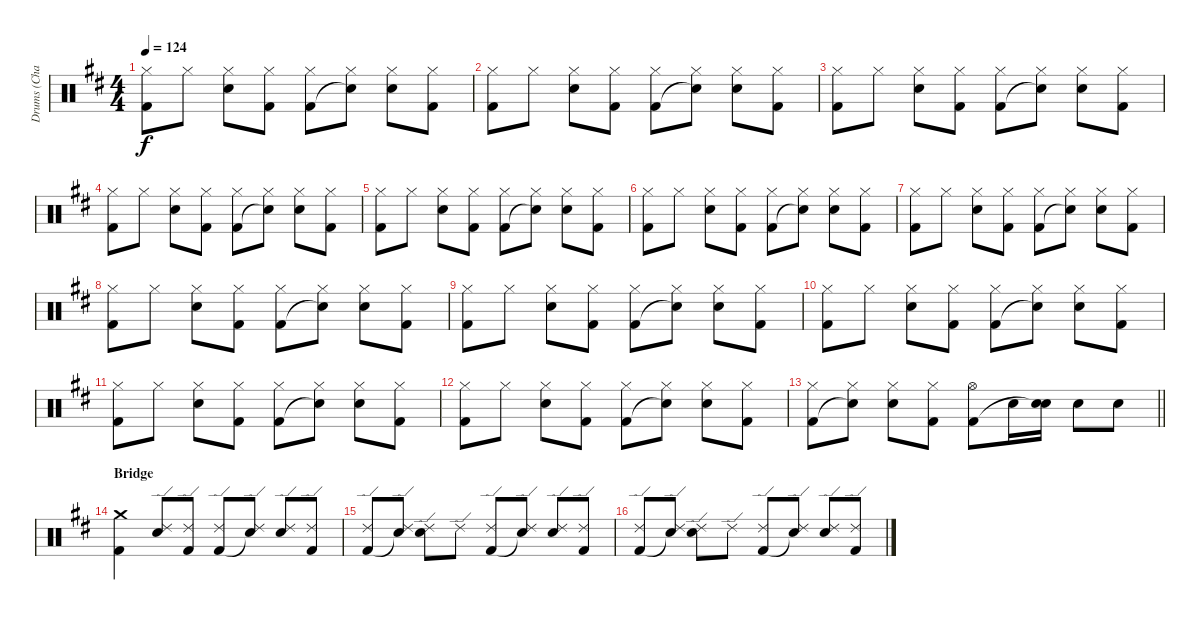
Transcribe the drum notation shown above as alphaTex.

\track ("Drums (Charlie)" "Drums (Cha") {instrument percussion}
\staff {score}
\articulation defaults
\ts (4 4)
\tempo 124
\clef neutral
\ks d
("Hi-Hat (closed)" "Kick (hit) 2").8{dy f} "Hi-Hat (closed)".8 ("Hi-Hat (closed)" "Snare (hit) 2").8 ("Hi-Hat (closed)" "Kick (hit) 2").8 ("Hi-Hat (closed)" "Kick (hit) 2").8 ("Hi-Hat (closed)" "Snare (hit)"{t}).8 ("Hi-Hat (closed)" "Snare (hit) 2").8 ("Hi-Hat (closed)" "Kick (hit) 2").8 |
("Hi-Hat (closed)" "Kick (hit) 2").8 "Hi-Hat (closed)".8 ("Hi-Hat (closed)" "Snare (hit) 2").8 ("Hi-Hat (closed)" "Kick (hit) 2").8 ("Hi-Hat (closed)" "Kick (hit) 2").8 ("Hi-Hat (closed)" "Snare (hit)"{t}).8 ("Hi-Hat (closed)" "Snare (hit) 2").8 ("Hi-Hat (closed)" "Kick (hit) 2").8 |
("Hi-Hat (closed)" "Kick (hit) 2").8 "Hi-Hat (closed)".8 ("Hi-Hat (closed)" "Snare (hit) 2").8 ("Hi-Hat (closed)" "Kick (hit) 2").8 ("Hi-Hat (closed)" "Kick (hit) 2").8 ("Hi-Hat (closed)" "Snare (hit)"{t}).8 ("Hi-Hat (closed)" "Snare (hit) 2").8 ("Hi-Hat (closed)" "Kick (hit) 2").8 |
("Hi-Hat (closed)" "Kick (hit) 2").8 "Hi-Hat (closed)".8 ("Hi-Hat (closed)" "Snare (hit) 2").8 ("Hi-Hat (closed)" "Kick (hit) 2").8 ("Hi-Hat (closed)" "Kick (hit) 2").8 ("Hi-Hat (closed)" "Snare (hit)"{t}).8 ("Hi-Hat (closed)" "Snare (hit) 2").8 ("Hi-Hat (closed)" "Kick (hit) 2").8 |
("Hi-Hat (closed)" "Kick (hit) 2").8 "Hi-Hat (closed)".8 ("Hi-Hat (closed)" "Snare (hit) 2").8 ("Hi-Hat (closed)" "Kick (hit) 2").8 ("Hi-Hat (closed)" "Kick (hit) 2").8 ("Hi-Hat (closed)" "Snare (hit)"{t}).8 ("Hi-Hat (closed)" "Snare (hit) 2").8 ("Hi-Hat (closed)" "Kick (hit) 2").8 |
("Hi-Hat (closed)" "Kick (hit) 2").8 "Hi-Hat (closed)".8 ("Hi-Hat (closed)" "Snare (hit) 2").8 ("Hi-Hat (closed)" "Kick (hit) 2").8 ("Hi-Hat (closed)" "Kick (hit) 2").8 ("Hi-Hat (closed)" "Snare (hit)"{t}).8 ("Hi-Hat (closed)" "Snare (hit) 2").8 ("Hi-Hat (closed)" "Kick (hit) 2").8 |
("Hi-Hat (closed)" "Kick (hit) 2").8 "Hi-Hat (closed)".8 ("Hi-Hat (closed)" "Snare (hit) 2").8 ("Hi-Hat (closed)" "Kick (hit) 2").8 ("Hi-Hat (closed)" "Kick (hit) 2").8 ("Hi-Hat (closed)" "Snare (hit)"{t}).8 ("Hi-Hat (closed)" "Snare (hit) 2").8 ("Hi-Hat (closed)" "Kick (hit) 2").8 |
("Hi-Hat (closed)" "Kick (hit) 2").8 "Hi-Hat (closed)".8 ("Hi-Hat (closed)" "Snare (hit) 2").8 ("Hi-Hat (closed)" "Kick (hit) 2").8 ("Hi-Hat (closed)" "Kick (hit) 2").8 ("Hi-Hat (closed)" "Snare (hit)"{t}).8 ("Hi-Hat (closed)" "Snare (hit) 2").8 ("Hi-Hat (closed)" "Kick (hit) 2").8 |
("Hi-Hat (closed)" "Kick (hit) 2").8 "Hi-Hat (closed)".8 ("Hi-Hat (closed)" "Snare (hit) 2").8 ("Hi-Hat (closed)" "Kick (hit) 2").8 ("Hi-Hat (closed)" "Kick (hit) 2").8 ("Hi-Hat (closed)" "Snare (hit)"{t}).8 ("Hi-Hat (closed)" "Snare (hit) 2").8 ("Hi-Hat (closed)" "Kick (hit) 2").8 |
("Hi-Hat (closed)" "Kick (hit) 2").8 "Hi-Hat (closed)".8 ("Hi-Hat (closed)" "Snare (hit) 2").8 ("Hi-Hat (closed)" "Kick (hit) 2").8 ("Hi-Hat (closed)" "Kick (hit) 2").8 ("Hi-Hat (closed)" "Snare (hit)"{t}).8 ("Hi-Hat (closed)" "Snare (hit) 2").8 ("Hi-Hat (closed)" "Kick (hit) 2").8 |
("Hi-Hat (closed)" "Kick (hit) 2").8 "Hi-Hat (closed)".8 ("Hi-Hat (closed)" "Snare (hit) 2").8 ("Hi-Hat (closed)" "Kick (hit) 2").8 ("Hi-Hat (closed)" "Kick (hit) 2").8 ("Hi-Hat (closed)" "Snare (hit)"{t}).8 ("Hi-Hat (closed)" "Snare (hit) 2").8 ("Hi-Hat (closed)" "Kick (hit) 2").8 |
("Hi-Hat (closed)" "Kick (hit) 2").8 "Hi-Hat (closed)".8 ("Hi-Hat (closed)" "Snare (hit) 2").8 ("Hi-Hat (closed)" "Kick (hit) 2").8 ("Hi-Hat (closed)" "Kick (hit) 2").8 ("Hi-Hat (closed)" "Snare (hit)"{t}).8 ("Hi-Hat (closed)" "Snare (hit) 2").8 ("Hi-Hat (closed)" "Kick (hit) 2").8 |
\barLineRight lightlight
("Hi-Hat (closed)" "Kick (hit) 2").8 ("Hi-Hat (closed)" "Snare (hit)"{t}).8 ("Hi-Hat (closed)" "Snare (hit) 2").8 ("Hi-Hat (closed)" "Kick (hit) 2").8 ("Hi-Hat (open)" "Kick (hit) 2").8 "Snare (hit) 2".16 ("Snare (hit) 2" "Snare (hit)"{t}).16 "Snare (hit) 2".8 "Snare (hit) 2".8 |
\section ("" "Bridge")
("Crash medium (hit)" "Kick (hit) 2").4 ("Ride (edge) 2" "Snare (hit) 2").8 ("Ride (edge) 2" "Kick (hit) 2").8 ("Ride (edge) 2" "Kick (hit) 2").8 ("Ride (edge) 2" "Snare (hit)"{t}).8 ("Ride (edge) 2" "Snare (hit) 2").8 ("Ride (edge) 2" "Kick (hit) 2").8 |
("Ride (edge) 2" "Kick (hit) 2").8 ("Ride (edge) 2" "Snare (hit)"{t}).8 ("Ride (edge) 2" "Snare (hit) 2").8 "Ride (edge) 2".8 ("Ride (edge) 2" "Kick (hit) 2").8 ("Ride (edge) 2" "Snare (hit)"{t}).8 ("Ride (edge) 2" "Snare (hit) 2").8 ("Ride (edge) 2" "Kick (hit) 2").8 |
("Ride (edge) 2" "Kick (hit) 2").8 ("Ride (edge) 2" "Snare (hit)"{t}).8 ("Ride (edge) 2" "Snare (hit) 2").8 "Ride (edge) 2".8 ("Ride (edge) 2" "Kick (hit) 2").8 ("Ride (edge) 2" "Snare (hit)"{t}).8 ("Ride (edge) 2" "Snare (hit) 2").8 ("Ride (edge) 2" "Kick (hit) 2").8
